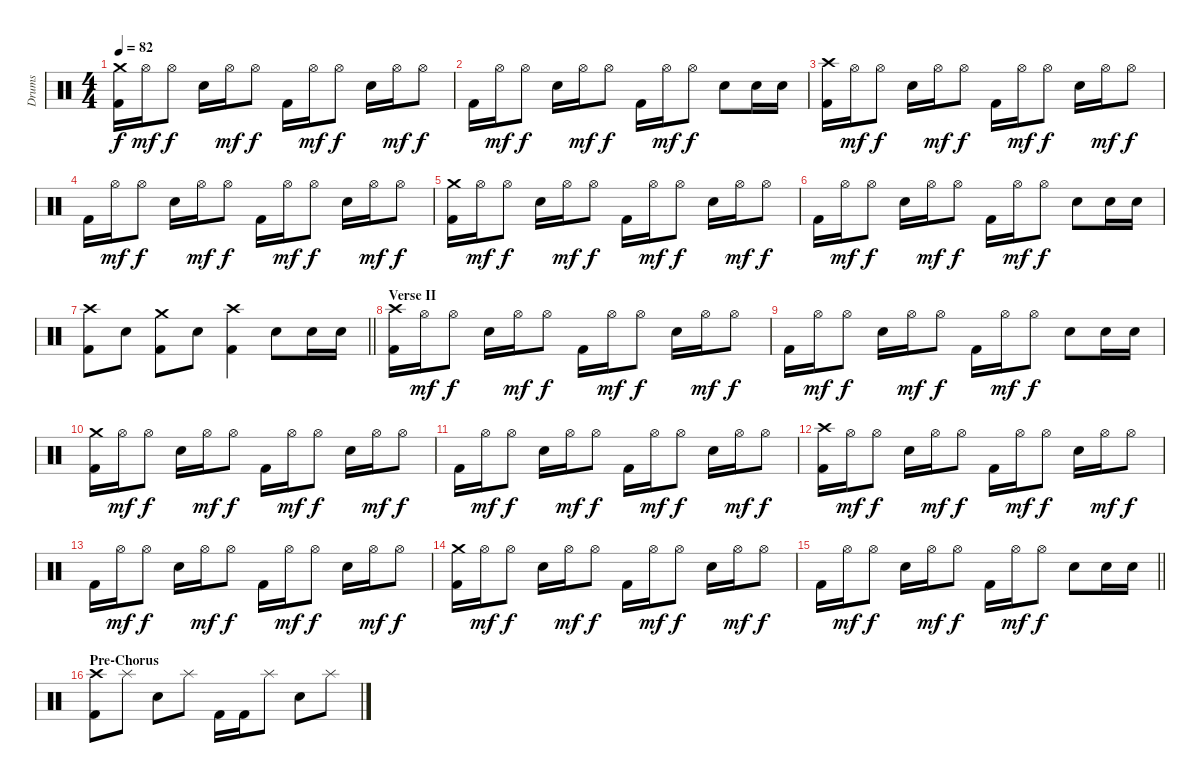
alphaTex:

\track ("Drums" "Drums") {instrument percussion}
\staff {score}
\articulation defaults
\ts (4 4)
\tempo 82
\clef neutral
\ks c
("Crash medium (hit)" "Kick (hit) 2").16{dy f} "Hi-Hat (open)".16{dy mf} "Hi-Hat (open)".8{dy f} "Snare (hit) 2".16 "Hi-Hat (open)".16{dy mf} "Hi-Hat (open)".8{dy f} "Kick (hit) 2".16 "Hi-Hat (open)".16{dy mf} "Hi-Hat (open)".8{dy f} "Snare (hit) 2".16 "Hi-Hat (open)".16{dy mf} "Hi-Hat (open)".8{dy f} |
"Kick (hit) 2".16 "Hi-Hat (open)".16{dy mf} "Hi-Hat (open)".8{dy f} "Snare (hit) 2".16 "Hi-Hat (open)".16{dy mf} "Hi-Hat (open)".8{dy f} "Kick (hit) 2".16 "Hi-Hat (open)".16{dy mf} "Hi-Hat (open)".8{dy f} "Snare (hit) 2".8 "Snare (hit) 2".16 "Snare (hit) 2".16 |
("Crash high (hit)" "Kick (hit) 2").16 "Hi-Hat (open)".16{dy mf} "Hi-Hat (open)".8{dy f} "Snare (hit) 2".16 "Hi-Hat (open)".16{dy mf} "Hi-Hat (open)".8{dy f} "Kick (hit) 2".16 "Hi-Hat (open)".16{dy mf} "Hi-Hat (open)".8{dy f} "Snare (hit) 2".16 "Hi-Hat (open)".16{dy mf} "Hi-Hat (open)".8{dy f} |
"Kick (hit) 2".16 "Hi-Hat (open)".16{dy mf} "Hi-Hat (open)".8{dy f} "Snare (hit) 2".16 "Hi-Hat (open)".16{dy mf} "Hi-Hat (open)".8{dy f} "Kick (hit) 2".16 "Hi-Hat (open)".16{dy mf} "Hi-Hat (open)".8{dy f} "Snare (hit) 2".16 "Hi-Hat (open)".16{dy mf} "Hi-Hat (open)".8{dy f} |
("Crash medium (hit)" "Kick (hit) 2").16 "Hi-Hat (open)".16{dy mf} "Hi-Hat (open)".8{dy f} "Snare (hit) 2".16 "Hi-Hat (open)".16{dy mf} "Hi-Hat (open)".8{dy f} "Kick (hit) 2".16 "Hi-Hat (open)".16{dy mf} "Hi-Hat (open)".8{dy f} "Snare (hit) 2".16 "Hi-Hat (open)".16{dy mf} "Hi-Hat (open)".8{dy f} |
"Kick (hit) 2".16 "Hi-Hat (open)".16{dy mf} "Hi-Hat (open)".8{dy f} "Snare (hit) 2".16 "Hi-Hat (open)".16{dy mf} "Hi-Hat (open)".8{dy f} "Kick (hit) 2".16 "Hi-Hat (open)".16{dy mf} "Hi-Hat (open)".8{dy f} "Snare (hit) 2".8 "Snare (hit) 2".16 "Snare (hit) 2".16 |
\barLineRight lightlight
("Crash high (hit)" "Kick (hit) 2").8 "Snare (hit) 2".8 ("Crash medium (hit)" "Kick (hit) 2").8 "Snare (hit) 2".8 ("Crash high (hit)" "Kick (hit) 2").4 "Snare (hit) 2".8 "Snare (hit) 2".16 "Snare (hit) 2".16 |
\section ("" "Verse II")
("Crash high (hit)" "Kick (hit) 2").16 "Hi-Hat (open)".16{dy mf} "Hi-Hat (open)".8{dy f} "Snare (hit) 2".16 "Hi-Hat (open)".16{dy mf} "Hi-Hat (open)".8{dy f} "Kick (hit) 2".16 "Hi-Hat (open)".16{dy mf} "Hi-Hat (open)".8{dy f} "Snare (hit) 2".16 "Hi-Hat (open)".16{dy mf} "Hi-Hat (open)".8{dy f} |
"Kick (hit) 2".16 "Hi-Hat (open)".16{dy mf} "Hi-Hat (open)".8{dy f} "Snare (hit) 2".16 "Hi-Hat (open)".16{dy mf} "Hi-Hat (open)".8{dy f} "Kick (hit) 2".16 "Hi-Hat (open)".16{dy mf} "Hi-Hat (open)".8{dy f} "Snare (hit) 2".8 "Snare (hit) 2".16 "Snare (hit) 2".16 |
("Crash medium (hit)" "Kick (hit) 2").16 "Hi-Hat (open)".16{dy mf} "Hi-Hat (open)".8{dy f} "Snare (hit) 2".16 "Hi-Hat (open)".16{dy mf} "Hi-Hat (open)".8{dy f} "Kick (hit) 2".16 "Hi-Hat (open)".16{dy mf} "Hi-Hat (open)".8{dy f} "Snare (hit) 2".16 "Hi-Hat (open)".16{dy mf} "Hi-Hat (open)".8{dy f} |
"Kick (hit) 2".16 "Hi-Hat (open)".16{dy mf} "Hi-Hat (open)".8{dy f} "Snare (hit) 2".16 "Hi-Hat (open)".16{dy mf} "Hi-Hat (open)".8{dy f} "Kick (hit) 2".16 "Hi-Hat (open)".16{dy mf} "Hi-Hat (open)".8{dy f} "Snare (hit) 2".16 "Hi-Hat (open)".16{dy mf} "Hi-Hat (open)".8{dy f} |
("Crash high (hit)" "Kick (hit) 2").16 "Hi-Hat (open)".16{dy mf} "Hi-Hat (open)".8{dy f} "Snare (hit) 2".16 "Hi-Hat (open)".16{dy mf} "Hi-Hat (open)".8{dy f} "Kick (hit) 2".16 "Hi-Hat (open)".16{dy mf} "Hi-Hat (open)".8{dy f} "Snare (hit) 2".16 "Hi-Hat (open)".16{dy mf} "Hi-Hat (open)".8{dy f} |
"Kick (hit) 2".16 "Hi-Hat (open)".16{dy mf} "Hi-Hat (open)".8{dy f} "Snare (hit) 2".16 "Hi-Hat (open)".16{dy mf} "Hi-Hat (open)".8{dy f} "Kick (hit) 2".16 "Hi-Hat (open)".16{dy mf} "Hi-Hat (open)".8{dy f} "Snare (hit) 2".16 "Hi-Hat (open)".16{dy mf} "Hi-Hat (open)".8{dy f} |
("Crash medium (hit)" "Kick (hit) 2").16 "Hi-Hat (open)".16{dy mf} "Hi-Hat (open)".8{dy f} "Snare (hit) 2".16 "Hi-Hat (open)".16{dy mf} "Hi-Hat (open)".8{dy f} "Kick (hit) 2".16 "Hi-Hat (open)".16{dy mf} "Hi-Hat (open)".8{dy f} "Snare (hit) 2".16 "Hi-Hat (open)".16{dy mf} "Hi-Hat (open)".8{dy f} |
\barLineRight lightlight "Kick (hit) 2".16 "Hi-Hat (open)".16{dy mf} "Hi-Hat (open)".8{dy f} "Snare (hit) 2".16 "Hi-Hat (open)".16{dy mf} "Hi-Hat (open)".8{dy f} "Kick (hit) 2".16 "Hi-Hat (open)".16{dy mf} "Hi-Hat (open)".8{dy f} "Snare (hit) 2".8 "Snare (hit) 2".16 "Snare (hit) 2".16
|
\section ("" "Pre-Chorus")
("Crash high (hit)" "Kick (hit) 2").8 "Splash (hit)".8 "Snare (hit) 2".8 "Splash (hit)".8 "Kick (hit) 2".16 "Kick (hit) 2".16 "Splash (hit)".8 "Snare (hit) 2".8 "Splash (hit)".8
